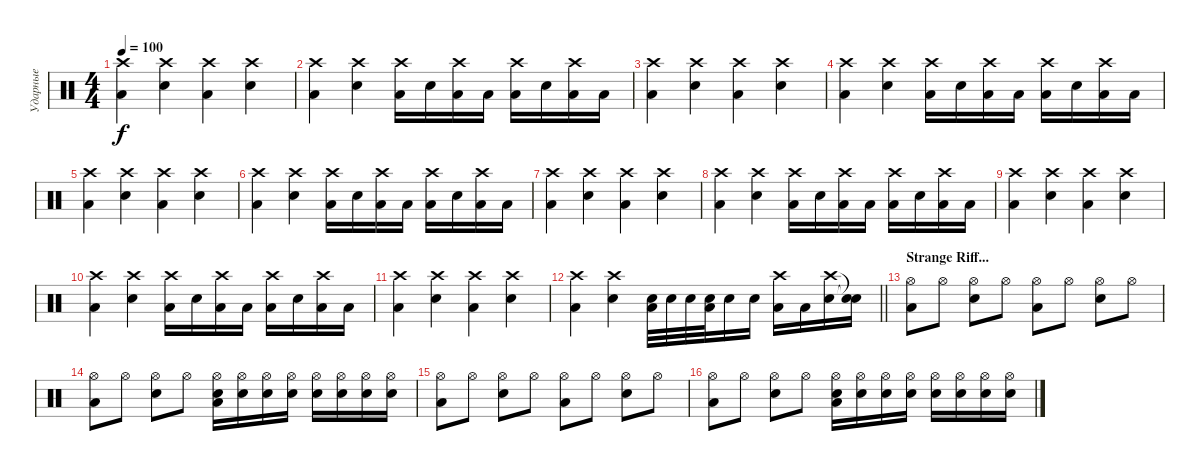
\track ("Ударные" "Ударные") {instrument percussion}
\staff {score}
\articulation defaults
\ts (4 4)
\tempo 100
\clef neutral
\ks c
("Low Floor Tom (hit)" "Crash high (hit)").4{dy f} ("Snare (hit) 2" "Crash high (hit)").4 ("Low Floor Tom (hit)" "Crash high (hit)").4 ("Snare (hit) 2" "Crash high (hit)").4 |
("Low Floor Tom (hit)" "Crash high (hit)").4 ("Snare (hit) 2" "Crash high (hit)").4 ("Low Floor Tom (hit)" "Crash high (hit)").16 "Snare (hit) 2".16 ("Low Floor Tom (hit)" "Crash high (hit)").16 "Low Floor Tom (hit)".16 ("Low Floor Tom (hit)" "Crash high (hit)").16 "Snare (hit) 2".16 ("Low Floor Tom (hit)" "Crash high (hit)").16 "Low Floor Tom (hit)".16 |
("Low Floor Tom (hit)" "Crash high (hit)").4 ("Snare (hit) 2" "Crash high (hit)").4 ("Low Floor Tom (hit)" "Crash high (hit)").4 ("Snare (hit) 2" "Crash high (hit)").4 |
("Low Floor Tom (hit)" "Crash high (hit)").4 ("Snare (hit) 2" "Crash high (hit)").4 ("Low Floor Tom (hit)" "Crash high (hit)").16 "Snare (hit) 2".16 ("Low Floor Tom (hit)" "Crash high (hit)").16 "Low Floor Tom (hit)".16 ("Low Floor Tom (hit)" "Crash high (hit)").16 "Snare (hit) 2".16 ("Low Floor Tom (hit)" "Crash high (hit)").16 "Low Floor Tom (hit)".16 |
("Low Floor Tom (hit)" "Crash high (hit)").4 ("Snare (hit) 2" "Crash high (hit)").4 ("Low Floor Tom (hit)" "Crash high (hit)").4 ("Snare (hit) 2" "Crash high (hit)").4 |
("Low Floor Tom (hit)" "Crash high (hit)").4 ("Snare (hit) 2" "Crash high (hit)").4 ("Low Floor Tom (hit)" "Crash high (hit)").16 "Snare (hit) 2".16 ("Low Floor Tom (hit)" "Crash high (hit)").16 "Low Floor Tom (hit)".16 ("Low Floor Tom (hit)" "Crash high (hit)").16 "Snare (hit) 2".16 ("Low Floor Tom (hit)" "Crash high (hit)").16 "Low Floor Tom (hit)".16 |
("Low Floor Tom (hit)" "Crash high (hit)").4 ("Snare (hit) 2" "Crash high (hit)").4 ("Low Floor Tom (hit)" "Crash high (hit)").4 ("Snare (hit) 2" "Crash high (hit)").4 |
("Low Floor Tom (hit)" "Crash high (hit)").4 ("Snare (hit) 2" "Crash high (hit)").4 ("Low Floor Tom (hit)" "Crash high (hit)").16 "Snare (hit) 2".16 ("Low Floor Tom (hit)" "Crash high (hit)").16 "Low Floor Tom (hit)".16 ("Low Floor Tom (hit)" "Crash high (hit)").16 "Snare (hit) 2".16 ("Low Floor Tom (hit)" "Crash high (hit)").16 "Low Floor Tom (hit)".16 |
("Low Floor Tom (hit)" "Crash high (hit)").4 ("Snare (hit) 2" "Crash high (hit)").4 ("Low Floor Tom (hit)" "Crash high (hit)").4 ("Snare (hit) 2" "Crash high (hit)").4 |
("Low Floor Tom (hit)" "Crash high (hit)").4 ("Snare (hit) 2" "Crash high (hit)").4 ("Low Floor Tom (hit)" "Crash high (hit)").16 "Snare (hit) 2".16 ("Low Floor Tom (hit)" "Crash high (hit)").16 "Low Floor Tom (hit)".16 ("Low Floor Tom (hit)" "Crash high (hit)").16 "Snare (hit) 2".16 ("Low Floor Tom (hit)" "Crash high (hit)").16 "Low Floor Tom (hit)".16 |
("Low Floor Tom (hit)" "Crash high (hit)").4 ("Snare (hit) 2" "Crash high (hit)").4 ("Low Floor Tom (hit)" "Crash high (hit)").4 ("Snare (hit) 2" "Crash high (hit)").4 |
\barLineRight lightlight
("Low Floor Tom (hit)" "Crash high (hit)").4 ("Snare (hit) 2" "Crash high (hit)").4 ("Low Floor Tom (hit)" "Snare (hit) 2").32 "Snare (hit) 2".32 "Snare (hit) 2".32 ("Low Floor Tom (hit)" "Snare (hit) 2").32 "Snare (hit) 2".16 "Snare (hit) 2".16 ("Low Floor Tom (hit)" "Crash high (hit)").16 "Low Floor Tom (hit)".16 ("Snare (hit) 2" "Crash high (hit)").16 ("Snare (hit)"{t} "Snare (hit)"{t}).16 |
\section ("" "Strange Riff...")
("Low Floor Tom (hit)" "Hi-Hat (open)").8 "Hi-Hat (open)".8 ("Snare (hit) 2" "Hi-Hat (open)").8 "Hi-Hat (open)".8 ("Low Floor Tom (hit)" "Hi-Hat (open)").8 "Hi-Hat (open)".8 ("Snare (hit) 2" "Hi-Hat (open)").8 "Hi-Hat (open)".8 |
("Low Floor Tom (hit)" "Hi-Hat (open)").8 "Hi-Hat (open)".8 ("Snare (hit) 2" "Hi-Hat (open)").8 "Hi-Hat (open)".8 ("Low Floor Tom (hit)" "Snare (hit) 2" "Hi-Hat (open)").16 ("Snare (hit) 2" "Hi-Hat (open)").16 ("Snare (hit) 2" "Hi-Hat (open)").16 ("Snare (hit) 2" "Hi-Hat (open)").16 ("Snare (hit) 2" "Hi-Hat (open)").16 ("Snare (hit) 2" "Hi-Hat (open)").16 ("Snare (hit) 2" "Hi-Hat (open)").16 ("Snare (hit) 2" "Hi-Hat (open)").16 |
("Low Floor Tom (hit)" "Hi-Hat (open)").8 "Hi-Hat (open)".8 ("Snare (hit) 2" "Hi-Hat (open)").8 "Hi-Hat (open)".8 ("Low Floor Tom (hit)" "Hi-Hat (open)").8 "Hi-Hat (open)".8 ("Snare (hit) 2" "Hi-Hat (open)").8 "Hi-Hat (open)".8 |
("Low Floor Tom (hit)" "Hi-Hat (open)").8 "Hi-Hat (open)".8 ("Snare (hit) 2" "Hi-Hat (open)").8 "Hi-Hat (open)".8 ("Low Floor Tom (hit)" "Snare (hit) 2" "Hi-Hat (open)").16 ("Snare (hit) 2" "Hi-Hat (open)").16 ("Snare (hit) 2" "Hi-Hat (open)").16 ("Snare (hit) 2" "Hi-Hat (open)").16 ("Snare (hit) 2" "Hi-Hat (open)").16 ("Snare (hit) 2" "Hi-Hat (open)").16 ("Snare (hit) 2" "Hi-Hat (open)").16 ("Snare (hit) 2" "Hi-Hat (open)").16
